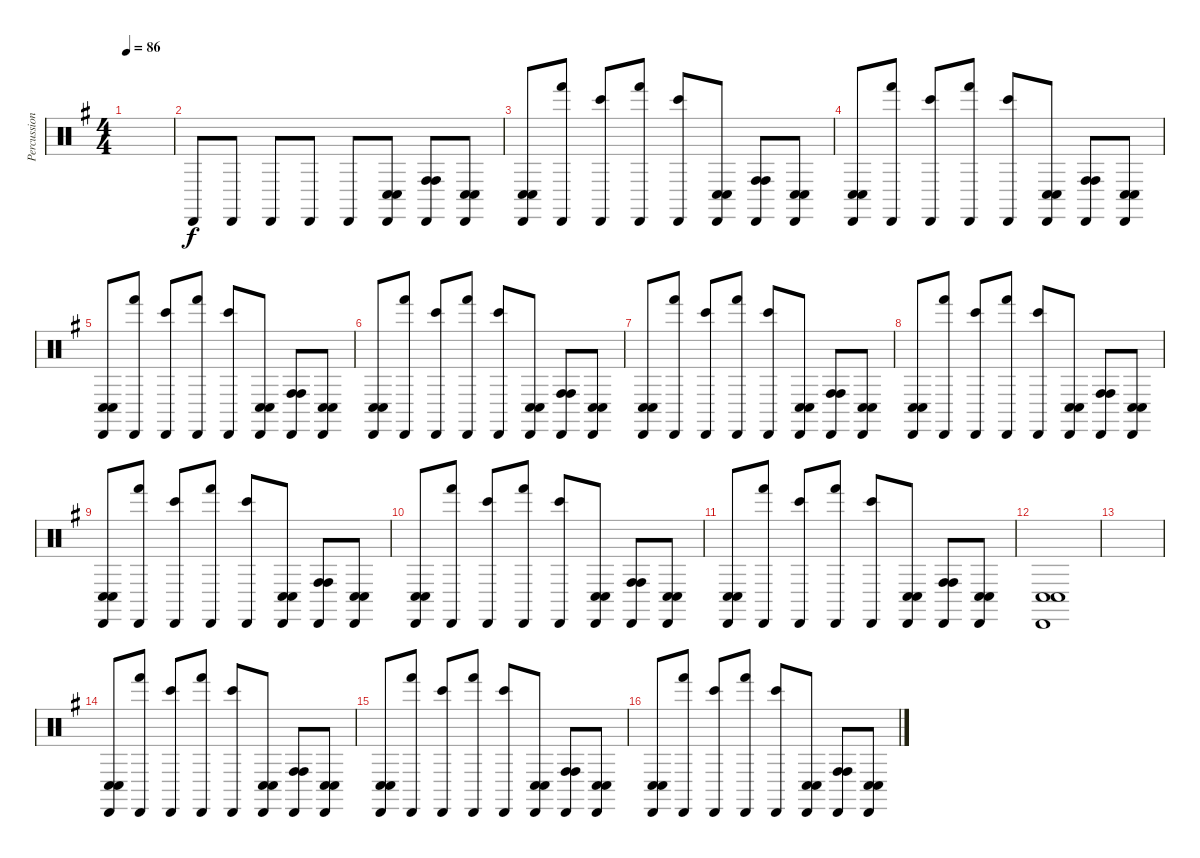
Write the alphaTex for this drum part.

\track ("Percussion" "Percussion") {instrument percussion}
\staff {score}
\articulation defaults
\ts (4 4)
\tempo 86
\clef neutral
\ks g
|
"Cabasa (hit)".8 "Cabasa (hit)".8 "Cabasa (hit)".8 "Cabasa (hit)".8 "Cabasa (hit)".8 ("Cabasa (hit)" "Conga low (hit)" "Conga low (hit)").8 ("Cabasa (hit)" "Conga high (hit)" "Conga high (hit)").8 ("Cabasa (hit)" "Conga low (hit)" "Conga low (hit)").8 |
("Cabasa (hit)" "Conga low (hit)" "Conga low (hit)").8 ("Cabasa (hit)" "Hand (hit)").8 ("Cabasa (hit)" "Bongo High (hit)").8 ("Cabasa (hit)" "Hand (hit)").8 ("Cabasa (hit)" "Bongo High (hit)").8 ("Cabasa (hit)" "Conga low (hit)" "Conga low (hit)").8 ("Cabasa (hit)" "Conga high (hit)" "Conga high (hit)").8 ("Cabasa (hit)" "Conga low (hit)" "Conga low (hit)").8 |
("Cabasa (hit)" "Conga low (hit)" "Conga low (hit)").8 ("Cabasa (hit)" "Hand (hit)").8 ("Cabasa (hit)" "Bongo High (hit)").8 ("Cabasa (hit)" "Hand (hit)").8 ("Cabasa (hit)" "Bongo High (hit)").8 ("Cabasa (hit)" "Conga low (hit)" "Conga low (hit)").8 ("Cabasa (hit)" "Conga high (hit)" "Conga high (hit)").8 ("Cabasa (hit)" "Conga low (hit)" "Conga low (hit)").8 |
("Cabasa (hit)" "Conga low (hit)" "Conga low (hit)").8 ("Cabasa (hit)" "Hand (hit)").8 ("Cabasa (hit)" "Bongo High (hit)").8 ("Cabasa (hit)" "Hand (hit)").8 ("Cabasa (hit)" "Bongo High (hit)").8 ("Cabasa (hit)" "Conga low (hit)" "Conga low (hit)").8 ("Cabasa (hit)" "Conga high (hit)" "Conga high (hit)").8 ("Cabasa (hit)" "Conga low (hit)" "Conga low (hit)").8 |
("Cabasa (hit)" "Conga low (hit)" "Conga low (hit)").8 ("Cabasa (hit)" "Hand (hit)").8 ("Cabasa (hit)" "Bongo High (hit)").8 ("Cabasa (hit)" "Hand (hit)").8 ("Cabasa (hit)" "Bongo High (hit)").8 ("Cabasa (hit)" "Conga low (hit)" "Conga low (hit)").8 ("Cabasa (hit)" "Conga high (hit)" "Conga high (hit)").8 ("Cabasa (hit)" "Conga low (hit)" "Conga low (hit)").8 |
("Cabasa (hit)" "Conga low (hit)" "Conga low (hit)").8 ("Cabasa (hit)" "Hand (hit)").8 ("Cabasa (hit)" "Bongo High (hit)").8 ("Cabasa (hit)" "Hand (hit)").8 ("Cabasa (hit)" "Bongo High (hit)").8 ("Cabasa (hit)" "Conga low (hit)" "Conga low (hit)").8 ("Cabasa (hit)" "Conga high (hit)" "Conga high (hit)").8 ("Cabasa (hit)" "Conga low (hit)" "Conga low (hit)").8 |
("Cabasa (hit)" "Conga low (hit)" "Conga low (hit)").8 ("Cabasa (hit)" "Hand (hit)").8 ("Cabasa (hit)" "Bongo High (hit)").8 ("Cabasa (hit)" "Hand (hit)").8 ("Cabasa (hit)" "Bongo High (hit)").8 ("Cabasa (hit)" "Conga low (hit)" "Conga low (hit)").8 ("Cabasa (hit)" "Conga high (hit)" "Conga high (hit)").8 ("Cabasa (hit)" "Conga low (hit)" "Conga low (hit)").8 |
("Cabasa (hit)" "Conga low (hit)" "Conga low (hit)").8 ("Cabasa (hit)" "Hand (hit)").8 ("Cabasa (hit)" "Bongo High (hit)").8 ("Cabasa (hit)" "Hand (hit)").8 ("Cabasa (hit)" "Bongo High (hit)").8 ("Cabasa (hit)" "Conga low (hit)" "Conga low (hit)").8 ("Cabasa (hit)" "Conga high (hit)" "Conga high (hit)").8 ("Cabasa (hit)" "Conga low (hit)" "Conga low (hit)").8 |
("Cabasa (hit)" "Conga low (hit)" "Conga low (hit)").8 ("Cabasa (hit)" "Hand (hit)").8 ("Cabasa (hit)" "Bongo High (hit)").8 ("Cabasa (hit)" "Hand (hit)").8 ("Cabasa (hit)" "Bongo High (hit)").8 ("Cabasa (hit)" "Conga low (hit)" "Conga low (hit)").8 ("Cabasa (hit)" "Conga high (hit)" "Conga high (hit)").8 ("Cabasa (hit)" "Conga low (hit)" "Conga low (hit)").8 |
("Cabasa (hit)" "Conga low (hit)" "Conga low (hit)").8 ("Cabasa (hit)" "Hand (hit)").8 ("Cabasa (hit)" "Bongo High (hit)").8 ("Cabasa (hit)" "Hand (hit)").8 ("Cabasa (hit)" "Bongo High (hit)").8 ("Cabasa (hit)" "Conga low (hit)" "Conga low (hit)").8 ("Cabasa (hit)" "Conga high (hit)" "Conga high (hit)").8 ("Cabasa (hit)" "Conga low (hit)" "Conga low (hit)").8 |
("Cabasa (hit)" "Conga low (hit)" "Conga low (hit)").1 |
|
("Cabasa (hit)" "Conga low (hit)" "Conga low (hit)").8 ("Cabasa (hit)" "Hand (hit)").8 ("Cabasa (hit)" "Bongo High (hit)").8 ("Cabasa (hit)" "Hand (hit)").8 ("Cabasa (hit)" "Bongo High (hit)").8 ("Cabasa (hit)" "Conga low (hit)" "Conga low (hit)").8 ("Cabasa (hit)" "Conga high (hit)" "Conga high (hit)").8 ("Cabasa (hit)" "Conga low (hit)" "Conga low (hit)").8 |
("Cabasa (hit)" "Conga low (hit)" "Conga low (hit)").8 ("Cabasa (hit)" "Hand (hit)").8 ("Cabasa (hit)" "Bongo High (hit)").8 ("Cabasa (hit)" "Hand (hit)").8 ("Cabasa (hit)" "Bongo High (hit)").8 ("Cabasa (hit)" "Conga low (hit)" "Conga low (hit)").8 ("Cabasa (hit)" "Conga high (hit)" "Conga high (hit)").8 ("Cabasa (hit)" "Conga low (hit)" "Conga low (hit)").8 |
("Cabasa (hit)" "Conga low (hit)" "Conga low (hit)").8 ("Cabasa (hit)" "Hand (hit)").8 ("Cabasa (hit)" "Bongo High (hit)").8 ("Cabasa (hit)" "Hand (hit)").8 ("Cabasa (hit)" "Bongo High (hit)").8 ("Cabasa (hit)" "Conga low (hit)" "Conga low (hit)").8 ("Cabasa (hit)" "Conga high (hit)" "Conga high (hit)").8 ("Cabasa (hit)" "Conga low (hit)" "Conga low (hit)").8
